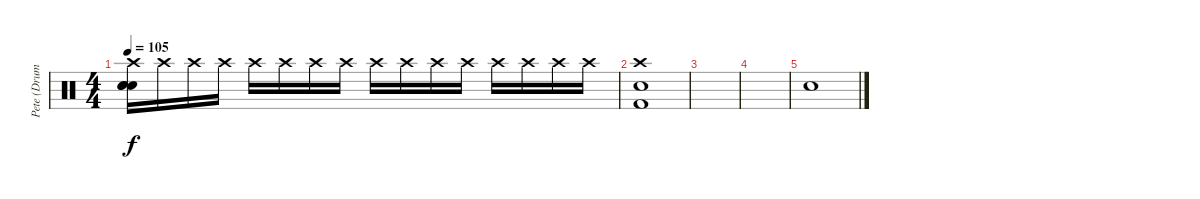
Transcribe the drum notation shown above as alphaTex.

\track ("Pete (Drums)" "Pete (Drum") {instrument percussion}
\staff {score}
\articulation defaults
\ts (4 4)
\tempo 105
\clef neutral
\ks c
("Crash high (hit)" "Snare (hit) 2" "Snare (hit) 2" "Snare (hit) 2").16{dy f} "Crash high (hit)".16 "Crash high (hit)".16 "Crash high (hit)".16 "Crash high (hit)".16 "Crash high (hit)".16 "Crash high (hit)".16 "Crash high (hit)".16 "Crash high (hit)".16 "Crash high (hit)".16 "Crash high (hit)".16 "Crash high (hit)".16 "Crash high (hit)".16 "Crash high (hit)".16 "Crash high (hit)".16 "Crash high (hit)".16 |
("Crash high (hit)" "Snare (hit) 2" "Kick (hit) 2").1 |
|
|
"Snare (hit) 2".1
